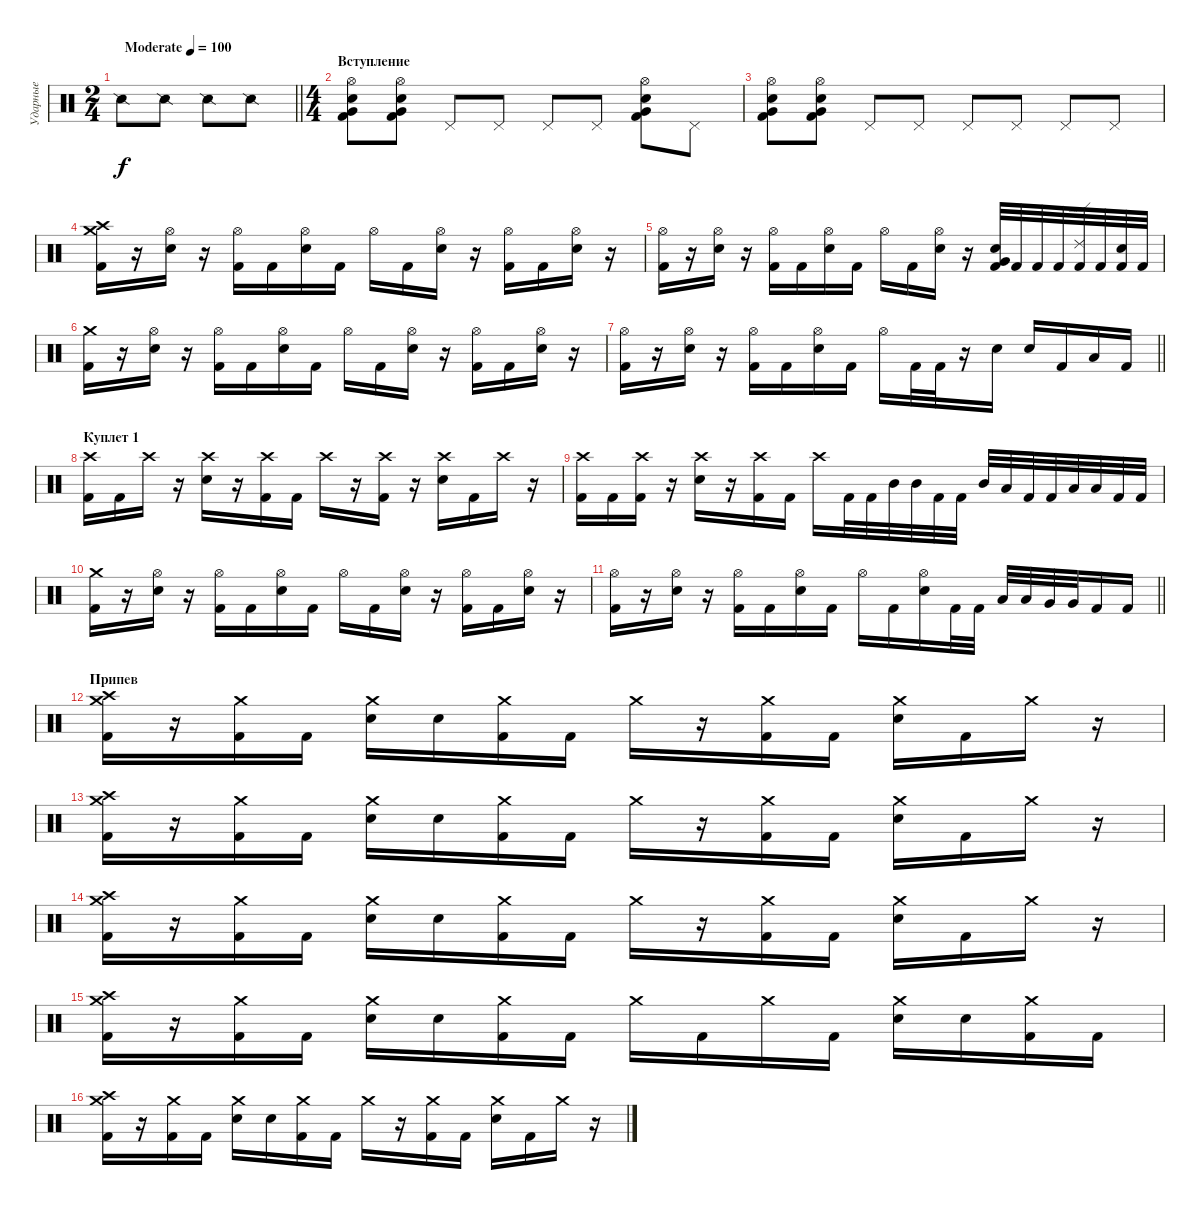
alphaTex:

\track ("Ударные" "Ударные") {instrument percussion}
\staff {score}
\articulation defaults
\ts (2 4)
\tempo (100 "Moderate")
\clef neutral
\barLineRight lightlight
\ks c "Snare (side stick) 2".8{dy f} "Snare (side stick) 2".8 "Snare (side stick) 2".8 "Snare (side stick) 2".8
|
\ts (4 4)
\section ("" "Вступление")
("Hi-Hat (open)" "Electric Snare (hit)" "Very Low Tom (hit)" "Kick (hit) 2").8 ("Hi-Hat (open)" "Electric Snare (hit)" "Very Low Tom (hit)" "Kick (hit) 2").8 "Pedal Hi-Hat (hit)".8 "Pedal Hi-Hat (hit)".8 "Pedal Hi-Hat (hit)".8 "Pedal Hi-Hat (hit)".8 ("Hi-Hat (open)" "Electric Snare (hit)" "Very Low Tom (hit)" "Kick (hit) 2").8 "Pedal Hi-Hat (hit)".8 |
("Hi-Hat (open)" "Electric Snare (hit)" "Very Low Tom (hit)" "Kick (hit) 2").8 ("Hi-Hat (open)" "Electric Snare (hit)" "Very Low Tom (hit)" "Kick (hit) 2").8 "Pedal Hi-Hat (hit)".8 "Pedal Hi-Hat (hit)".8 "Pedal Hi-Hat (hit)".8 "Pedal Hi-Hat (hit)".8 "Pedal Hi-Hat (hit)".8 "Pedal Hi-Hat (hit)".8 |
("Crash medium (hit)" "Crash high (hit)" "Kick (hit) 2").16 r.16 ("Hi-Hat (open)" "Electric Snare (hit)").16 r.16 ("Hi-Hat (open)" "Kick (hit) 2").16 "Kick (hit) 2".16 ("Hi-Hat (open)" "Electric Snare (hit)").16 "Kick (hit) 2".16 "Hi-Hat (open)".16 "Kick (hit) 2".16 ("Hi-Hat (open)" "Electric Snare (hit)").16 r.16 ("Hi-Hat (open)" "Kick (hit) 2").16 "Kick (hit) 2".16 ("Hi-Hat (open)" "Electric Snare (hit)").16 r.16 |
("Hi-Hat (open)" "Kick (hit) 2").16 r.16 ("Hi-Hat (open)" "Electric Snare (hit)").16 r.16 ("Hi-Hat (open)" "Kick (hit) 2").16 "Kick (hit) 2".16 ("Hi-Hat (open)" "Electric Snare (hit)").16 "Kick (hit) 2".16 "Hi-Hat (open)".16 "Kick (hit) 2".16 ("Hi-Hat (open)" "Electric Snare (hit)").16 r.16 ("Very Low Tom (hit)" "Electric Snare (hit)" "Kick (hit) 2").32 "Kick (hit) 2".32 "Kick (hit) 2".32 "Kick (hit) 2".32 ("Ride (edge) 2" "Kick (hit) 2").32 "Kick (hit) 2".32 ("Electric Snare (hit)" "Kick (hit) 2").32 "Kick (hit) 2".32 |
("Crash medium (hit)" "Kick (hit) 2").16 r.16 ("Hi-Hat (open)" "Electric Snare (hit)").16 r.16 ("Hi-Hat (open)" "Kick (hit) 2").16 "Kick (hit) 2".16 ("Hi-Hat (open)" "Electric Snare (hit)").16 "Kick (hit) 2".16 "Hi-Hat (open)".16 "Kick (hit) 2".16 ("Hi-Hat (open)" "Electric Snare (hit)").16 r.16 ("Hi-Hat (open)" "Kick (hit) 2").16 "Kick (hit) 2".16 ("Hi-Hat (open)" "Electric Snare (hit)").16 r.16 |
\barLineRight lightlight
("Hi-Hat (open)" "Kick (hit) 2").16 r.16 ("Hi-Hat (open)" "Electric Snare (hit)").16 r.16 ("Hi-Hat (open)" "Kick (hit) 2").16 "Kick (hit) 2".16 ("Hi-Hat (open)" "Electric Snare (hit)").16 "Kick (hit) 2".16 "Hi-Hat (open)".16 "Kick (hit) 2".32 "Kick (hit) 2".32 r.16 "Electric Snare (hit)".16 "Electric Snare (hit)".16 "Kick (hit) 2".16 "Low Tom (hit)".16 "Kick (hit) 2".16 |
\section ("" "Куплет 1")
("Crash high (hit)" "Kick (hit) 2").16 "Kick (hit) 2".16 "Crash high (hit)".16 r.16 ("Crash high (hit)" "Electric Snare (hit)").16 r.16 ("Crash high (hit)" "Kick (hit) 2").16 "Kick (hit) 2".16 "Crash high (hit)".16 r.16 ("Crash high (hit)" "Kick (hit) 2").16 r.16 ("Crash high (hit)" "Electric Snare (hit)").16 "Kick (hit) 2".16 "Crash high (hit)".16 r.16 |
("Crash high (hit)" "Kick (hit) 2").16 "Kick (hit) 2".16 ("Crash high (hit)" "Kick (hit) 2").16 r.16 ("Crash high (hit)" "Electric Snare (hit)").16 r.16 ("Crash high (hit)" "Kick (hit) 2").16 "Kick (hit) 2".16 "Crash high (hit)".16 "Kick (hit) 2".32 "Kick (hit) 2".32 "Mid Tom (hit)".32 "Mid Tom (hit)".32 "Kick (hit) 2".32 "Kick (hit) 2".32 "Mid Tom (hit)".32 "Low Tom (hit)".32 "Kick (hit) 2".32 "Kick (hit) 2".32 "Low Tom (hit)".32 "Low Tom (hit)".32 "Kick (hit) 2".32 "Kick (hit) 2".32 |
("Crash medium (hit)" "Kick (hit) 2").16 r.16 ("Hi-Hat (open)" "Electric Snare (hit)").16 r.16 ("Hi-Hat (open)" "Kick (hit) 2").16 "Kick (hit) 2".16 ("Hi-Hat (open)" "Electric Snare (hit)").16 "Kick (hit) 2".16 "Hi-Hat (open)".16 "Kick (hit) 2".16 ("Hi-Hat (open)" "Electric Snare (hit)").16 r.16 ("Hi-Hat (open)" "Kick (hit) 2").16 "Kick (hit) 2".16 ("Hi-Hat (open)" "Electric Snare (hit)").16 r.16 |
\barLineRight lightlight
("Hi-Hat (open)" "Kick (hit) 2").16 r.16 ("Hi-Hat (open)" "Electric Snare (hit)").16 r.16 ("Hi-Hat (open)" "Kick (hit) 2").16 "Kick (hit) 2".16 ("Hi-Hat (open)" "Electric Snare (hit)").16 "Kick (hit) 2".16 "Hi-Hat (open)".16 "Kick (hit) 2".16 ("Hi-Hat (open)" "Electric Snare (hit)").16 "Kick (hit) 2".32 "Kick (hit) 2".32 "Low Tom (hit)".32 "Low Tom (hit)".32 "Very Low Tom (hit)".32 "Very Low Tom (hit)".32 "Kick (hit) 2".16 "Kick (hit) 2".16 |
\section ("" "Припев")
("Crash high (hit)" "Crash medium (hit)" "Kick (hit) 2").16 r.16 ("Crash medium (hit)" "Kick (hit) 2").16 "Kick (hit) 2".16 ("Crash medium (hit)" "Electric Snare (hit)").16 "Electric Snare (hit)".16 ("Crash medium (hit)" "Kick (hit) 2").16 "Kick (hit) 2".16 "Crash medium (hit)".16 r.16 ("Crash medium (hit)" "Kick (hit) 2").16 "Kick (hit) 2".16 ("Crash medium (hit)" "Electric Snare (hit)").16 "Kick (hit) 2".16 "Crash medium (hit)".16 r.16 |
("Crash high (hit)" "Crash medium (hit)" "Kick (hit) 2").16 r.16 ("Crash medium (hit)" "Kick (hit) 2").16 "Kick (hit) 2".16 ("Crash medium (hit)" "Electric Snare (hit)").16 "Electric Snare (hit)".16 ("Crash medium (hit)" "Kick (hit) 2").16 "Kick (hit) 2".16 "Crash medium (hit)".16 r.16 ("Crash medium (hit)" "Kick (hit) 2").16 "Kick (hit) 2".16 ("Crash medium (hit)" "Electric Snare (hit)").16 "Kick (hit) 2".16 "Crash medium (hit)".16 r.16 |
("Crash high (hit)" "Crash medium (hit)" "Kick (hit) 2").16 r.16 ("Crash medium (hit)" "Kick (hit) 2").16 "Kick (hit) 2".16 ("Crash medium (hit)" "Electric Snare (hit)").16 "Electric Snare (hit)".16 ("Crash medium (hit)" "Kick (hit) 2").16 "Kick (hit) 2".16 "Crash medium (hit)".16 r.16 ("Crash medium (hit)" "Kick (hit) 2").16 "Kick (hit) 2".16 ("Crash medium (hit)" "Electric Snare (hit)").16 "Kick (hit) 2".16 "Crash medium (hit)".16 r.16 |
("Crash high (hit)" "Crash medium (hit)" "Kick (hit) 2").16 r.16 ("Crash medium (hit)" "Kick (hit) 2").16 "Kick (hit) 2".16 ("Crash medium (hit)" "Electric Snare (hit)").16 "Electric Snare (hit)".16 ("Crash medium (hit)" "Kick (hit) 2").16 "Kick (hit) 2".16 "Crash medium (hit)".16 "Kick (hit) 2".16 "Crash medium (hit)".16 "Kick (hit) 2".16 ("Crash medium (hit)" "Electric Snare (hit)").16 "Electric Snare (hit)".16 ("Crash medium (hit)" "Kick (hit) 2").16 "Kick (hit) 2".16 |
("Crash high (hit)" "Crash medium (hit)" "Kick (hit) 2").16 r.16 ("Crash medium (hit)" "Kick (hit) 2").16 "Kick (hit) 2".16 ("Crash medium (hit)" "Electric Snare (hit)").16 "Electric Snare (hit)".16 ("Crash medium (hit)" "Kick (hit) 2").16 "Kick (hit) 2".16 "Crash medium (hit)".16 r.16 ("Crash medium (hit)" "Kick (hit) 2").16 "Kick (hit) 2".16 ("Crash medium (hit)" "Electric Snare (hit)").16 "Kick (hit) 2".16 "Crash medium (hit)".16 r.16
